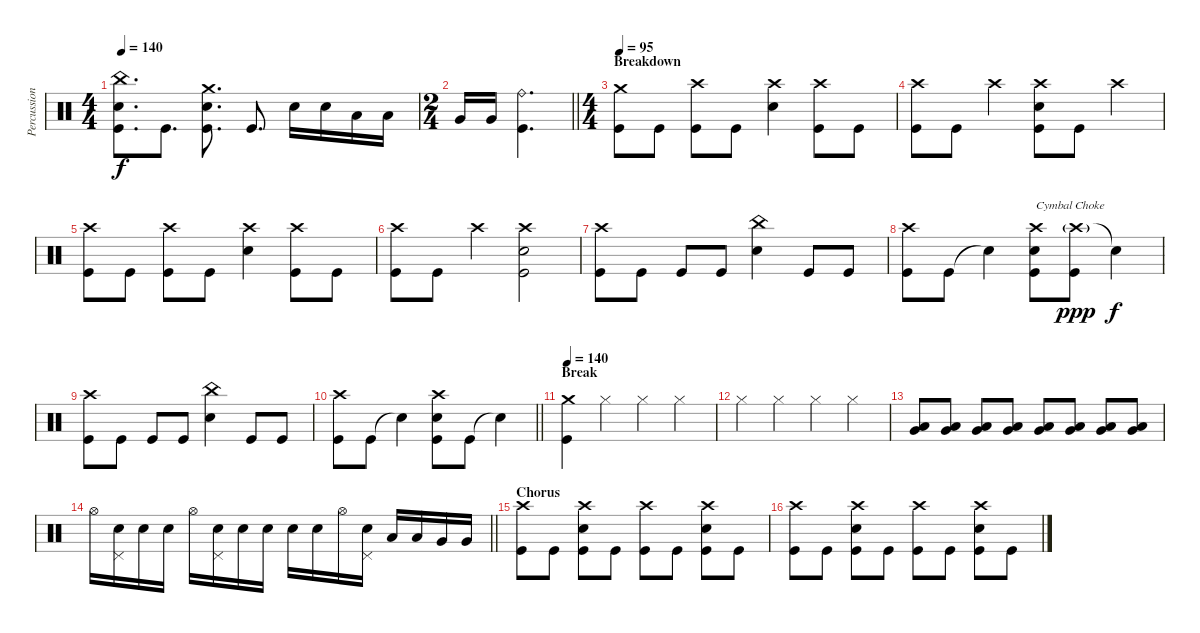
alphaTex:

\track ("Percussion" "Percussion") {instrument percussion}
\staff {score}
\articulation defaults
\ts (4 4)
\tempo 140
\clef neutral
\ks c
("China (hit)" "Electric Snare (hit)" "Kick (hit)").8{d dy f} "Kick (hit)".8{d} ("Crash medium (hit)" "Electric Snare (hit)" "Kick (hit)").8{d} "Kick (hit)".8{d} "Electric Snare (hit)".16 "Electric Snare (hit)".16 "Low Tom (hit)".16 "Low Tom (hit)".16 |
\ts (2 4)
\barLineRight lightlight "Very Low Tom (hit)".16 "Very Low Tom (hit)".16
("Ride (bell)" "Kick (hit)").4{d} |
\ts (4 4)
\section ("" "Breakdown")
\tempo 95
("Crash medium (hit)" "Kick (hit)").8 "Kick (hit)".8 ("Crash high (hit)" "Kick (hit)").8 "Kick (hit)".8 ("Crash high (hit)" "Electric Snare (hit)").4 ("Crash high (hit)" "Kick (hit)").8 "Kick (hit)".8 |
("Crash high (hit)" "Kick (hit)").8 "Kick (hit)".8 "Crash high (hit)".4 ("Crash high (hit)" "Electric Snare (hit)" "Kick (hit)").8 "Kick (hit)".8 "Crash high (hit)".4 |
("Crash high (hit)" "Kick (hit)").8 "Kick (hit)".8 ("Crash high (hit)" "Kick (hit)").8 "Kick (hit)".8 ("Crash high (hit)" "Electric Snare (hit)").4 ("Crash high (hit)" "Kick (hit)").8 "Kick (hit)".8 |
("Crash high (hit)" "Kick (hit)").8 "Kick (hit)".8 "Crash high (hit)".4 ("Crash high (hit)" "Electric Snare (hit)" "Kick (hit)").2 |
("Crash high (hit)" "Kick (hit)").8 "Kick (hit)".8 "Kick (hit)".8 "Kick (hit)".8 ("China (hit)" "Electric Snare (hit)").4 "Kick (hit)".8 "Kick (hit)".8 |
("Crash high (hit)" "Kick (hit)").8 "Kick (hit)".8 "Snare (hit)"{t}.4 ("Crash high (hit)" "Electric Snare (hit)" "Kick (hit)").8{txt "Cymbal Choke"} ("Crash high (hit)"{g} "Kick (hit)").8{dy ppp} "Snare (hit)"{t}.4{dy f} |
("Crash high (hit)" "Kick (hit)").8 "Kick (hit)".8 "Kick (hit)".8 "Kick (hit)".8 ("China (hit)" "Electric Snare (hit)").4 "Kick (hit)".8 "Kick (hit)".8 |
\barLineRight lightlight
("Crash high (hit)" "Kick (hit)").8 "Kick (hit)".8 "Snare (hit)"{t}.4 ("Crash high (hit)" "Electric Snare (hit)" "Kick (hit)").8 "Kick (hit)".8 "Snare (hit)"{t}.4 |
\section ("" "Break")
\tempo 140
("Crash medium (hit)" "Kick (hit)").4 "Hi-Hat (closed)".4 "Hi-Hat (closed)".4 "Hi-Hat (closed)".4 |
"Hi-Hat (closed)".4 "Hi-Hat (closed)".4 "Hi-Hat (closed)".4 "Hi-Hat (closed)".4 |
("Very Low Tom (hit)" "Low Floor Tom (hit)").8 ("Very Low Tom (hit)" "Low Floor Tom (hit)").8 ("Very Low Tom (hit)" "Low Floor Tom (hit)").8 ("Very Low Tom (hit)" "Low Floor Tom (hit)").8 ("Very Low Tom (hit)" "Low Floor Tom (hit)").8 ("Very Low Tom (hit)" "Low Floor Tom (hit)").8 ("Very Low Tom (hit)" "Low Floor Tom (hit)").8 ("Very Low Tom (hit)" "Low Floor Tom (hit)").8 |
\barLineRight lightlight "Hi-Hat (open)".16
("Pedal Hi-Hat (hit)" "Electric Snare (hit)").16 "Electric Snare (hit)".16 "Electric Snare (hit)".16 "Hi-Hat (open)".16 ("Pedal Hi-Hat (hit)" "Electric Snare (hit)").16 "Electric Snare (hit)".16 "Electric Snare (hit)".16 "Electric Snare (hit)".16 "Electric Snare (hit)".16 "Hi-Hat (open)".16 ("Pedal Hi-Hat (hit)" "Electric Snare (hit)").16 "Low Tom (hit)".16 "Low Tom (hit)".16 "Very Low Tom (hit)".16 "Very Low Tom (hit)".16 |
\section ("" "Chorus")
("Crash high (hit)" "Kick (hit)").8 "Kick (hit)".8 ("Crash high (hit)" "Electric Snare (hit)" "Kick (hit)").8 "Kick (hit)".8 ("Crash high (hit)" "Kick (hit)").8 "Kick (hit)".8 ("Crash high (hit)" "Electric Snare (hit)" "Kick (hit)").8 "Kick (hit)".8 |
("Crash high (hit)" "Kick (hit)").8 "Kick (hit)".8 ("Crash high (hit)" "Electric Snare (hit)" "Kick (hit)").8 "Kick (hit)".8 ("Crash high (hit)" "Kick (hit)").8 "Kick (hit)".8 ("Crash high (hit)" "Electric Snare (hit)" "Kick (hit)").8 "Kick (hit)".8
